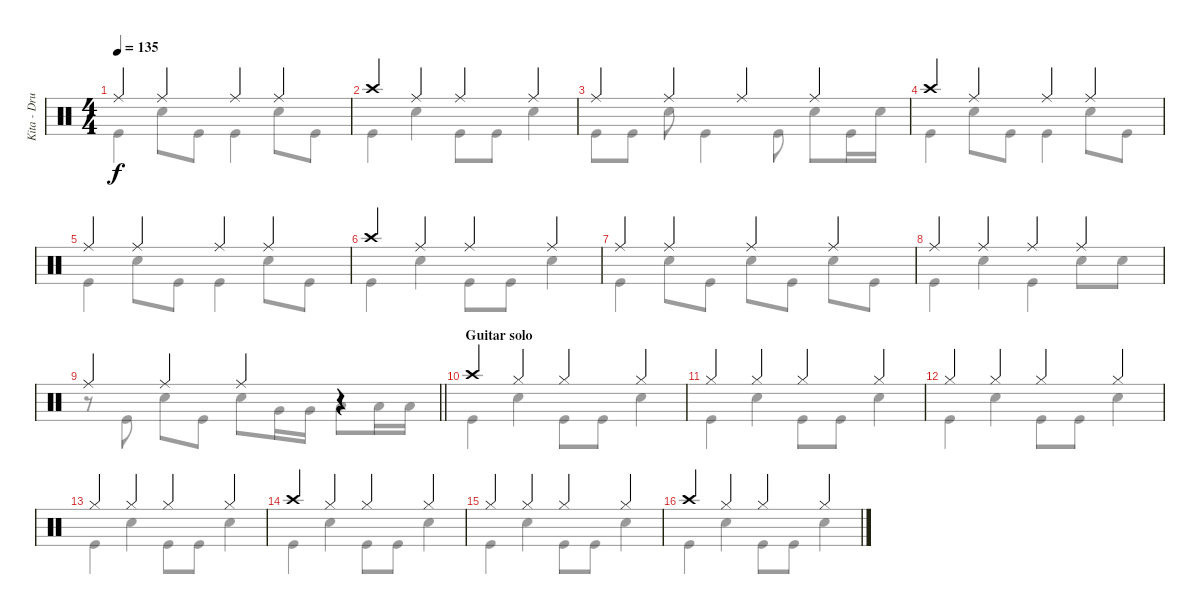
\track ("Kita - Drums" "Kita - Dru") {instrument percussion}
\staff {score}
\articulation defaults
\voice
\ts (4 4)
\tempo 135
\clef neutral
\ks c "Ride (middle)".4{dy f} "Ride (middle)".4 "Ride (middle)".4 "Ride (middle)".4
|
"Crash high (hit)".4 "Ride (middle)".4 "Ride (middle)".4 "Ride (middle)".4 |
"Ride (middle)".4 "Ride (middle)".4 "Ride (middle)".4 "Ride (middle)".4 |
"Crash high (hit)".4 "Ride (middle)".4 "Ride (middle)".4 "Ride (middle)".4 |
"Ride (middle)".4 "Ride (middle)".4 "Ride (middle)".4 "Ride (middle)".4 |
"Crash high (hit)".4 "Ride (middle)".4 "Ride (middle)".4 "Ride (middle)".4 |
"Ride (middle)".4 "Ride (middle)".4 "Ride (middle)".4 "Ride (middle)".4 |
"Ride (middle)".4 "Ride (middle)".4 "Ride (middle)".4 "Ride (middle)".4 |
\barLineRight lightlight "Ride (middle)".4 "Ride (middle)".4 "Ride (middle)".4
r.4 |
\section ("" "Guitar solo")
"Crash high (hit)".4 "Hi-Hat (closed)".4 "Hi-Hat (closed)".4 "Hi-Hat (closed)".4 |
"Hi-Hat (closed)".4 "Hi-Hat (closed)".4 "Hi-Hat (closed)".4 "Hi-Hat (closed)".4 |
"Hi-Hat (closed)".4 "Hi-Hat (closed)".4 "Hi-Hat (closed)".4 "Hi-Hat (closed)".4 |
"Hi-Hat (closed)".4 "Hi-Hat (closed)".4 "Hi-Hat (closed)".4 "Hi-Hat (closed)".4 |
"Crash high (hit)".4 "Hi-Hat (closed)".4 "Hi-Hat (closed)".4 "Hi-Hat (closed)".4 |
"Hi-Hat (closed)".4 "Hi-Hat (closed)".4 "Hi-Hat (closed)".4 "Hi-Hat (closed)".4 |
"Crash high (hit)".4 "Hi-Hat (closed)".4 "Hi-Hat (closed)".4 "Hi-Hat (closed)".4
\voice
\clef neutral
\ottava regular
\simile none
\ks c "Kick (hit)".4{dy f} "Snare (hit) 2".8 "Kick (hit)".8 "Kick (hit)".4 "Snare (hit) 2".8 "Kick (hit)".8
|
"Kick (hit)".4 "Snare (hit) 2".4 "Kick (hit)".8 "Kick (hit)".8 "Snare (hit) 2".4 |
"Kick (hit)".8 "Kick (hit)".8 "Snare (hit) 2".8 "Kick (hit)".4 "Kick (hit)".8 "Snare (hit) 2".8 "Kick (hit)".16 "Snare (hit) 2".16 |
"Kick (hit)".4 "Snare (hit) 2".8 "Kick (hit)".8 "Kick (hit)".4 "Snare (hit) 2".8 "Kick (hit)".8 |
"Kick (hit)".4 "Snare (hit) 2".8 "Kick (hit)".8 "Kick (hit)".4 "Snare (hit) 2".8 "Kick (hit)".8 |
"Kick (hit)".4 "Snare (hit) 2".4 "Kick (hit)".8 "Kick (hit)".8 "Snare (hit) 2".4 |
"Kick (hit)".4 "Snare (hit) 2".8 "Kick (hit)".8 "Snare (hit) 2".8 "Kick (hit)".8 "Snare (hit) 2".8 "Kick (hit)".8 |
"Kick (hit)".4 "Snare (hit) 2".4 "Kick (hit)".4 "Snare (hit) 2".8 "Snare (hit) 2".8 |
\barLineRight lightlight
r.8 "Kick (hit)".8 "Snare (hit) 2".8 "Kick (hit)".8 "Snare (hit) 2".8 "Very Low Tom (hit)".16 "Very Low Tom (hit)".16 "Low Floor Tom (hit)".8 "Low Floor Tom (hit)".16 "Low Floor Tom (hit)".16 |
"Kick (hit)".4 "Snare (hit) 2".4 "Kick (hit)".8 "Kick (hit)".8 "Snare (hit) 2".4 |
"Kick (hit)".4 "Snare (hit) 2".4 "Kick (hit)".8 "Kick (hit)".8 "Snare (hit) 2".4 |
"Kick (hit)".4 "Snare (hit) 2".4 "Kick (hit)".8 "Kick (hit)".8 "Snare (hit) 2".4 |
"Kick (hit)".4 "Snare (hit) 2".4 "Kick (hit)".8 "Kick (hit)".8 "Snare (hit) 2".4 |
"Kick (hit)".4 "Snare (hit) 2".4 "Kick (hit)".8 "Kick (hit)".8 "Snare (hit) 2".4 |
"Kick (hit)".4 "Snare (hit) 2".4 "Kick (hit)".8 "Kick (hit)".8 "Snare (hit) 2".4 |
"Kick (hit)".4 "Snare (hit) 2".4 "Kick (hit)".8 "Kick (hit)".8 "Snare (hit) 2".4
